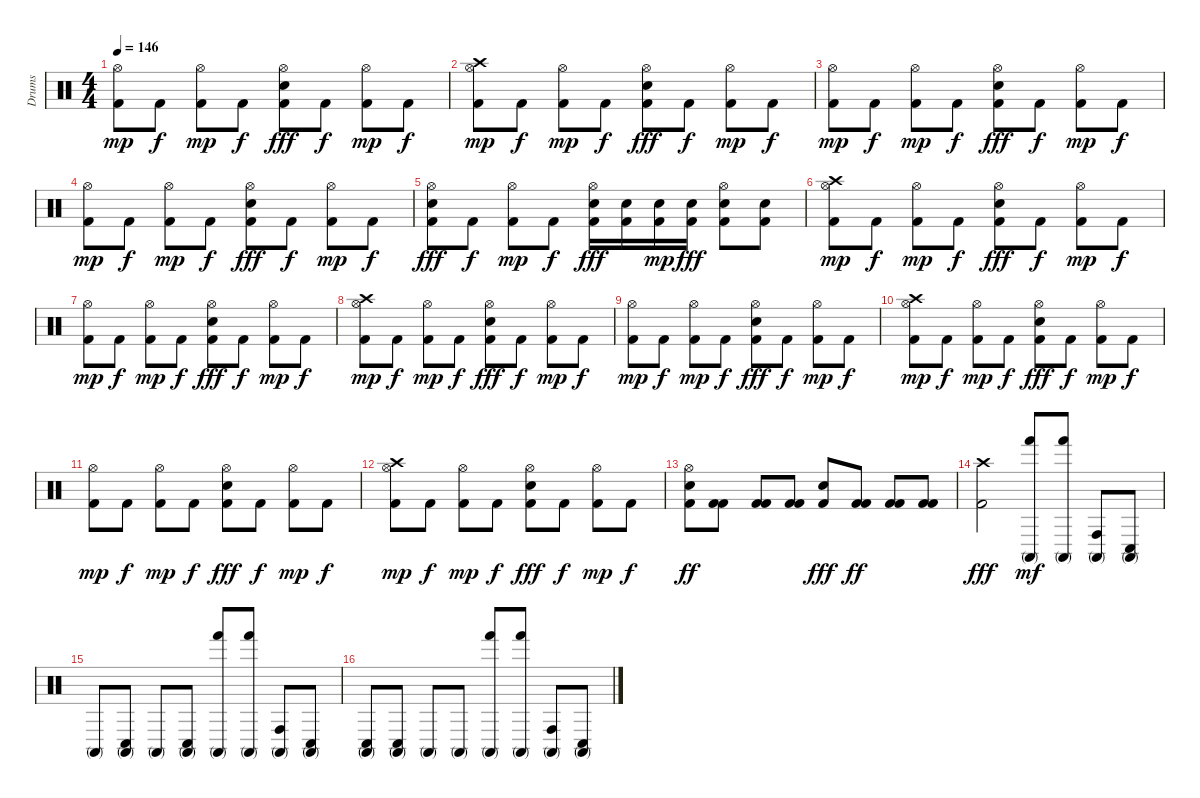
\track ("Drums" "Drums") {instrument percussion}
\staff {score}
\articulation defaults
\ts (4 4)
\tempo 146
\clef neutral
\ks c
("Hi-Hat (open)" "Kick (hit) 2").8{dy mp} "Kick (hit) 2".8{dy f} ("Hi-Hat (open)" "Kick (hit) 2").8{dy mp} "Kick (hit) 2".8{dy f} ("Hi-Hat (open)" "Snare (hit) 2" "Kick (hit) 2").8{dy fff} "Kick (hit) 2".8{dy f} ("Hi-Hat (open)" "Kick (hit) 2").8{dy mp} "Kick (hit) 2".8{dy f} |
("Crash high (hit)" "Hi-Hat (open)" "Kick (hit) 2").8{dy mp} "Kick (hit) 2".8{dy f} ("Hi-Hat (open)" "Kick (hit) 2").8{dy mp} "Kick (hit) 2".8{dy f} ("Hi-Hat (open)" "Snare (hit) 2" "Kick (hit) 2").8{dy fff} "Kick (hit) 2".8{dy f} ("Hi-Hat (open)" "Kick (hit) 2").8{dy mp} "Kick (hit) 2".8{dy f} |
("Hi-Hat (open)" "Kick (hit) 2").8{dy mp} "Kick (hit) 2".8{dy f} ("Hi-Hat (open)" "Kick (hit) 2").8{dy mp} "Kick (hit) 2".8{dy f} ("Hi-Hat (open)" "Snare (hit) 2" "Kick (hit) 2").8{dy fff} "Kick (hit) 2".8{dy f} ("Hi-Hat (open)" "Kick (hit) 2").8{dy mp} "Kick (hit) 2".8{dy f} |
("Hi-Hat (open)" "Kick (hit) 2").8{dy mp} "Kick (hit) 2".8{dy f} ("Hi-Hat (open)" "Kick (hit) 2").8{dy mp} "Kick (hit) 2".8{dy f} ("Hi-Hat (open)" "Snare (hit) 2" "Kick (hit) 2").8{dy fff} "Kick (hit) 2".8{dy f} ("Hi-Hat (open)" "Kick (hit) 2").8{dy mp} "Kick (hit) 2".8{dy f} |
("Hi-Hat (open)" "Snare (hit) 2" "Kick (hit) 2").8{dy fff} "Kick (hit) 2".8{dy f} ("Hi-Hat (open)" "Kick (hit) 2").8{dy mp} "Kick (hit) 2".8{dy f} ("Hi-Hat (open)" "Snare (hit) 2" "Kick (hit) 2").16{dy fff} ("Snare (hit) 2" "Kick (hit) 2").16 ("Snare (hit) 2" "Kick (hit) 2").16{dy mp} ("Snare (hit) 2" "Kick (hit) 2").16{dy fff} ("Hi-Hat (open)" "Snare (hit) 2" "Kick (hit) 2").8 ("Snare (hit) 2" "Kick (hit) 2").8 |
("Crash high (hit)" "Hi-Hat (open)" "Kick (hit) 2").8{dy mp} "Kick (hit) 2".8{dy f} ("Hi-Hat (open)" "Kick (hit) 2").8{dy mp} "Kick (hit) 2".8{dy f} ("Hi-Hat (open)" "Snare (hit) 2" "Kick (hit) 2").8{dy fff} "Kick (hit) 2".8{dy f} ("Hi-Hat (open)" "Kick (hit) 2").8{dy mp} "Kick (hit) 2".8{dy f} |
("Hi-Hat (open)" "Kick (hit) 2").8{dy mp} "Kick (hit) 2".8{dy f} ("Hi-Hat (open)" "Kick (hit) 2").8{dy mp} "Kick (hit) 2".8{dy f} ("Hi-Hat (open)" "Snare (hit) 2" "Kick (hit) 2").8{dy fff} "Kick (hit) 2".8{dy f} ("Hi-Hat (open)" "Kick (hit) 2").8{dy mp} "Kick (hit) 2".8{dy f} |
("Crash high (hit)" "Hi-Hat (open)" "Kick (hit) 2").8{dy mp} "Kick (hit) 2".8{dy f} ("Hi-Hat (open)" "Kick (hit) 2").8{dy mp} "Kick (hit) 2".8{dy f} ("Hi-Hat (open)" "Snare (hit) 2" "Kick (hit) 2").8{dy fff} "Kick (hit) 2".8{dy f} ("Hi-Hat (open)" "Kick (hit) 2").8{dy mp} "Kick (hit) 2".8{dy f} |
("Hi-Hat (open)" "Kick (hit) 2").8{dy mp} "Kick (hit) 2".8{dy f} ("Hi-Hat (open)" "Kick (hit) 2").8{dy mp} "Kick (hit) 2".8{dy f} ("Hi-Hat (open)" "Snare (hit) 2" "Kick (hit) 2").8{dy fff} "Kick (hit) 2".8{dy f} ("Hi-Hat (open)" "Kick (hit) 2").8{dy mp} "Kick (hit) 2".8{dy f} |
("Crash high (hit)" "Hi-Hat (open)" "Kick (hit) 2").8{dy mp} "Kick (hit) 2".8{dy f} ("Hi-Hat (open)" "Kick (hit) 2").8{dy mp} "Kick (hit) 2".8{dy f} ("Hi-Hat (open)" "Snare (hit) 2" "Kick (hit) 2").8{dy fff} "Kick (hit) 2".8{dy f} ("Hi-Hat (open)" "Kick (hit) 2").8{dy mp} "Kick (hit) 2".8{dy f} |
("Hi-Hat (open)" "Kick (hit) 2").8{dy mp} "Kick (hit) 2".8{dy f} ("Hi-Hat (open)" "Kick (hit) 2").8{dy mp} "Kick (hit) 2".8{dy f} ("Hi-Hat (open)" "Snare (hit) 2" "Kick (hit) 2").8{dy fff} "Kick (hit) 2".8{dy f} ("Hi-Hat (open)" "Kick (hit) 2").8{dy mp} "Kick (hit) 2".8{dy f} |
("Crash high (hit)" "Hi-Hat (open)" "Kick (hit) 2").8{dy mp} "Kick (hit) 2".8{dy f} ("Hi-Hat (open)" "Kick (hit) 2").8{dy mp} "Kick (hit) 2".8{dy f} ("Hi-Hat (open)" "Snare (hit) 2" "Kick (hit) 2").8{dy fff} "Kick (hit) 2".8{dy f} ("Hi-Hat (open)" "Kick (hit) 2").8{dy mp} "Kick (hit) 2".8{dy f} |
("Hi-Hat (open)" "Snare (hit) 2" "Kick (hit) 2").8{dy ff} ("Kick (hit) 2" "Kick (hit) 2").8 ("Kick (hit) 2" "Kick (hit) 2").8 ("Kick (hit) 2" "Kick (hit) 2").8 ("Snare (hit) 2" "Kick (hit) 2").8{dy fff} ("Kick (hit) 2" "Kick (hit) 2").8{dy ff} ("Kick (hit) 2" "Kick (hit) 2").8 ("Kick (hit) 2" "Kick (hit) 2").8 |
("Crash high (hit)" "Kick (hit) 2").2{dy fff} ("Hand (hit)" "Conga high (mute)").8{dy mf} ("Hand (hit)" "Conga high (mute)").8 ("Conga high (hit)" "Conga high (mute)").8 ("Conga low (hit)" "Conga high (mute)").8 |
"Conga high (mute)".8 ("Conga low (hit)" "Conga high (mute)").8 "Conga high (mute)".8 ("Conga low (hit)" "Conga high (mute)").8 ("Hand (hit)" "Conga high (mute)").8 ("Hand (hit)" "Conga high (mute)").8 ("Conga high (hit)" "Conga high (mute)").8 ("Conga low (hit)" "Conga high (mute)").8 |
("Conga low (hit)" "Conga high (mute)").8 ("Conga low (hit)" "Conga high (mute)").8 "Conga high (mute)".8 "Conga high (mute)".8 ("Hand (hit)" "Conga high (mute)").8 ("Hand (hit)" "Conga high (mute)").8 ("Conga high (hit)" "Conga high (mute)").8 ("Conga low (hit)" "Conga high (mute)").8
